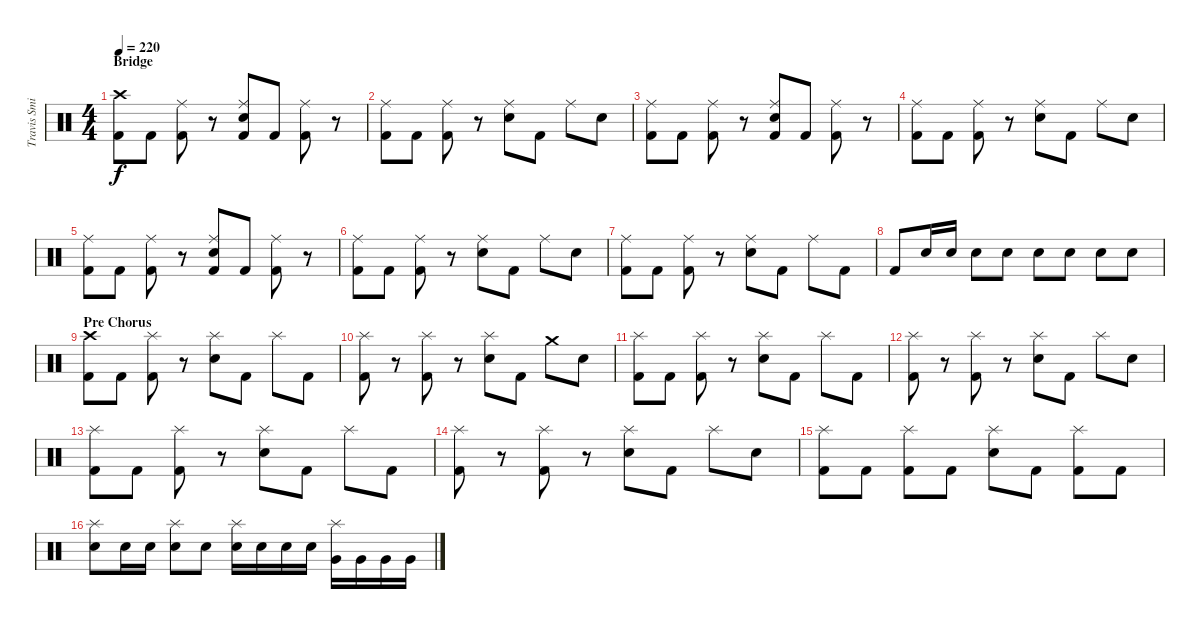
\track ("Travis Smith" "Travis Smi") {instrument percussion}
\staff {score}
\articulation defaults
\ts (4 4)
\section ("" "Bridge")
\tempo 220
\clef neutral
\ks c
("Crash high (hit)" "Kick (hit) 2").8{dy f} "Kick (hit) 2".8 ("Ride (middle)" "Kick (hit) 2").8 r.8 ("Ride (middle)" "Electric Snare (hit)" "Kick (hit) 2").8 "Kick (hit) 2".8 ("Ride (middle)" "Kick (hit) 2").8 r.8 |
("Ride (middle)" "Kick (hit) 2").8 "Kick (hit) 2".8 ("Ride (middle)" "Kick (hit) 2").8 r.8 ("Ride (middle)" "Electric Snare (hit)").8 "Kick (hit) 2".8 "Ride (middle)".8 "Electric Snare (hit)".8 |
("Ride (middle)" "Kick (hit) 2").8 "Kick (hit) 2".8 ("Ride (middle)" "Kick (hit) 2").8 r.8 ("Ride (middle)" "Electric Snare (hit)" "Kick (hit) 2").8 "Kick (hit) 2".8 ("Ride (middle)" "Kick (hit) 2").8 r.8 |
("Ride (middle)" "Kick (hit) 2").8 "Kick (hit) 2".8 ("Ride (middle)" "Kick (hit) 2").8 r.8 ("Ride (middle)" "Electric Snare (hit)").8 "Kick (hit) 2".8 "Ride (middle)".8 "Electric Snare (hit)".8 |
("Ride (middle)" "Kick (hit) 2").8 "Kick (hit) 2".8 ("Ride (middle)" "Kick (hit) 2").8 r.8 ("Ride (middle)" "Electric Snare (hit)" "Kick (hit) 2").8 "Kick (hit) 2".8 ("Ride (middle)" "Kick (hit) 2").8 r.8 |
("Ride (middle)" "Kick (hit) 2").8 "Kick (hit) 2".8 ("Ride (middle)" "Kick (hit) 2").8 r.8 ("Ride (middle)" "Electric Snare (hit)").8 "Kick (hit) 2".8 "Ride (middle)".8 "Electric Snare (hit)".8 |
("Ride (middle)" "Kick (hit) 2").8 "Kick (hit) 2".8 ("Ride (middle)" "Kick (hit) 2").8 r.8 ("Ride (middle)" "Electric Snare (hit)").8 "Kick (hit) 2".8 "Ride (middle)".8 "Kick (hit) 2".8 |
"Kick (hit) 2".8 "Electric Snare (hit)".16 "Electric Snare (hit)".16 "Electric Snare (hit)".8 "Electric Snare (hit)".8 "Electric Snare (hit)".8 "Electric Snare (hit)".8 "Electric Snare (hit)".8 "Electric Snare (hit)".8 |
\section ("" "Pre Chorus")
("Crash high (hit)" "Kick (hit) 2").8 "Kick (hit) 2".8 ("Splash (hit)" "Kick (hit) 2").8 r.8 ("Splash (hit)" "Electric Snare (hit)").8 "Kick (hit) 2".8 "Splash (hit)".8 "Kick (hit) 2".8 |
("Splash (hit)" "Kick (hit) 2").8 r.8 ("Splash (hit)" "Kick (hit) 2").8 r.8 ("Splash (hit)" "Electric Snare (hit)").8 "Kick (hit) 2".8 "Crash medium (hit)".8 "Electric Snare (hit)".8 |
("Splash (hit)" "Kick (hit) 2").8 "Kick (hit) 2".8 ("Splash (hit)" "Kick (hit) 2").8 r.8 ("Splash (hit)" "Electric Snare (hit)").8 "Kick (hit) 2".8 "Splash (hit)".8 "Kick (hit) 2".8 |
("Splash (hit)" "Kick (hit) 2").8 r.8 ("Splash (hit)" "Kick (hit) 2").8 r.8 ("Splash (hit)" "Electric Snare (hit)").8 "Kick (hit) 2".8 "Splash (hit)".8 "Electric Snare (hit)".8 |
("Splash (hit)" "Kick (hit) 2").8 "Kick (hit) 2".8 ("Splash (hit)" "Kick (hit) 2").8 r.8 ("Splash (hit)" "Electric Snare (hit)").8 "Kick (hit) 2".8 "Splash (hit)".8 "Kick (hit) 2".8 |
("Splash (hit)" "Kick (hit) 2").8 r.8 ("Splash (hit)" "Kick (hit) 2").8 r.8 ("Splash (hit)" "Electric Snare (hit)").8 "Kick (hit) 2".8 "Splash (hit)".8 "Electric Snare (hit)".8 |
("Splash (hit)" "Kick (hit) 2").8 "Kick (hit) 2".8 ("Splash (hit)" "Kick (hit) 2").8 "Kick (hit) 2".8 ("Splash (hit)" "Electric Snare (hit)").8 "Kick (hit) 2".8 ("Splash (hit)" "Kick (hit) 2").8 "Kick (hit) 2".8 |
("Splash (hit)" "Electric Snare (hit)").8 "Electric Snare (hit)".16 "Electric Snare (hit)".16 ("Splash (hit)" "Electric Snare (hit)").8 "Electric Snare (hit)".8 ("Splash (hit)" "Electric Snare (hit)").16 "Electric Snare (hit)".16 "Electric Snare (hit)".16 "Electric Snare (hit)".16 ("Splash (hit)" "Very Low Tom (hit)").16 "Very Low Tom (hit)".16 "Very Low Tom (hit)".16 "Very Low Tom (hit)".16
